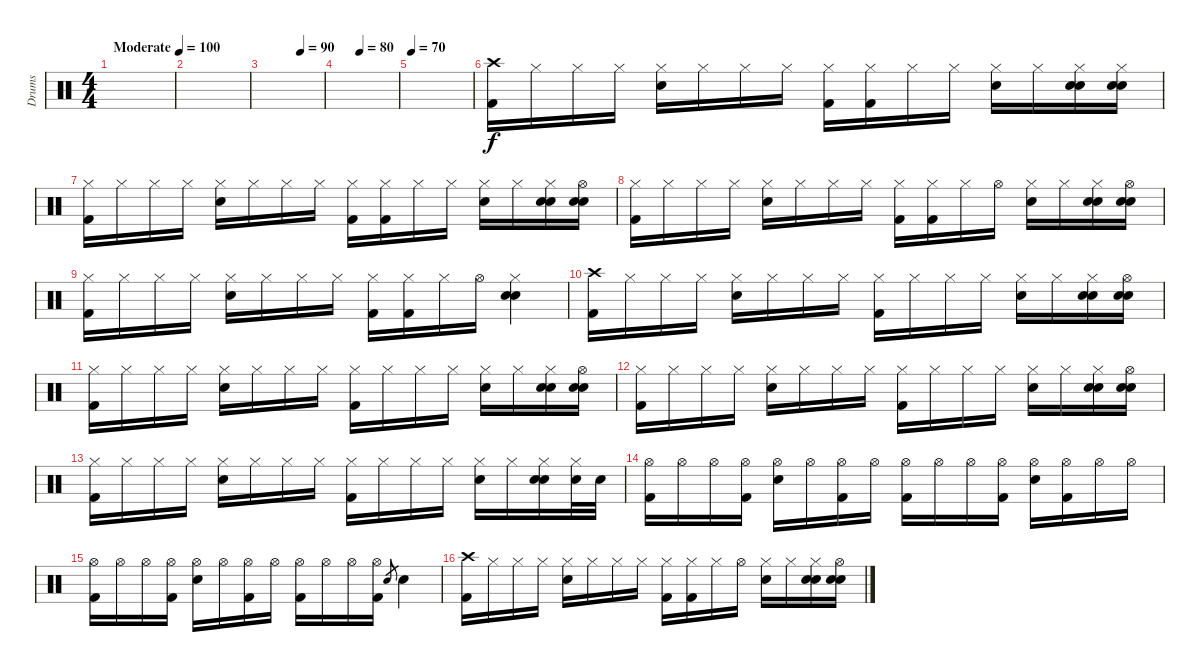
\track ("Drums" "Drums") {instrument percussion}
\staff {score}
\articulation defaults
\ts (4 4)
\tempo (100 "Moderate")
\clef neutral
\ks c
|
|
\tempo (90 0.625)
|
\tempo (80 0.375)
|
\tempo 70
|
("Crash high (hit)" "Kick (hit) 2").16 "Hi-Hat (closed)".16 "Hi-Hat (closed)".16 "Hi-Hat (closed)".16 ("Hi-Hat (closed)" "Electric Snare (hit)").16 "Hi-Hat (closed)".16 "Hi-Hat (closed)".16 "Hi-Hat (closed)".16 ("Hi-Hat (closed)" "Kick (hit) 2").16 ("Hi-Hat (closed)" "Kick (hit) 2").16 "Hi-Hat (closed)".16 "Hi-Hat (closed)".16 ("Hi-Hat (closed)" "Electric Snare (hit)").16 "Hi-Hat (closed)".16 ("Hi-Hat (closed)" "Hand Clap (hit)" "Electric Snare (hit)").16 ("Hi-Hat (closed)" "Hand Clap (hit)" "Electric Snare (hit)").16 |
("Hi-Hat (closed)" "Kick (hit) 2").16 "Hi-Hat (closed)".16 "Hi-Hat (closed)".16 "Hi-Hat (closed)".16 ("Hi-Hat (closed)" "Electric Snare (hit)").16 "Hi-Hat (closed)".16 "Hi-Hat (closed)".16 "Hi-Hat (closed)".16 ("Hi-Hat (closed)" "Kick (hit) 2").16 ("Hi-Hat (closed)" "Kick (hit) 2").16 "Hi-Hat (closed)".16 "Hi-Hat (closed)".16 ("Hi-Hat (closed)" "Electric Snare (hit)").16 "Hi-Hat (closed)".16 ("Hi-Hat (closed)" "Hand Clap (hit)" "Electric Snare (hit)").16 ("Hi-Hat (open)" "Hand Clap (hit)" "Electric Snare (hit)").16 |
("Hi-Hat (closed)" "Kick (hit) 2").16 "Hi-Hat (closed)".16 "Hi-Hat (closed)".16 "Hi-Hat (closed)".16 ("Hi-Hat (closed)" "Electric Snare (hit)").16 "Hi-Hat (closed)".16 "Hi-Hat (closed)".16 "Hi-Hat (closed)".16 ("Hi-Hat (closed)" "Kick (hit) 2").16 ("Hi-Hat (closed)" "Kick (hit) 2").16 "Hi-Hat (closed)".16 "Hi-Hat (open)".16 ("Hi-Hat (closed)" "Electric Snare (hit)").16 "Hi-Hat (closed)".16 ("Hi-Hat (closed)" "Hand Clap (hit)" "Electric Snare (hit)").16 ("Hi-Hat (open)" "Hand Clap (hit)" "Electric Snare (hit)").16 |
("Hi-Hat (closed)" "Kick (hit) 2").16 "Hi-Hat (closed)".16 "Hi-Hat (closed)".16 "Hi-Hat (closed)".16 ("Hi-Hat (closed)" "Electric Snare (hit)").16 "Hi-Hat (closed)".16 "Hi-Hat (closed)".16 "Hi-Hat (closed)".16 ("Hi-Hat (closed)" "Kick (hit) 2").16 ("Hi-Hat (closed)" "Kick (hit) 2").16 "Hi-Hat (closed)".16 "Hi-Hat (open)".16 ("Hi-Hat (closed)" "Hand Clap (hit)" "Electric Snare (hit)").4 |
("Crash high (hit)" "Kick (hit) 2").16 "Hi-Hat (closed)".16 "Hi-Hat (closed)".16 "Hi-Hat (closed)".16 ("Hi-Hat (closed)" "Electric Snare (hit)").16 "Hi-Hat (closed)".16 "Hi-Hat (closed)".16 "Hi-Hat (closed)".16 ("Hi-Hat (closed)" "Kick (hit) 2").16 "Hi-Hat (closed)".16 "Hi-Hat (closed)".16 "Hi-Hat (closed)".16 ("Hi-Hat (closed)" "Electric Snare (hit)").16 "Hi-Hat (closed)".16 ("Hi-Hat (closed)" "Hand Clap (hit)" "Electric Snare (hit)").16 ("Hi-Hat (open)" "Hand Clap (hit)" "Electric Snare (hit)").16 |
("Hi-Hat (closed)" "Kick (hit) 2").16 "Hi-Hat (closed)".16 "Hi-Hat (closed)".16 "Hi-Hat (closed)".16 ("Hi-Hat (closed)" "Electric Snare (hit)").16 "Hi-Hat (closed)".16 "Hi-Hat (closed)".16 "Hi-Hat (closed)".16 ("Hi-Hat (closed)" "Kick (hit) 2").16 "Hi-Hat (closed)".16 "Hi-Hat (closed)".16 "Hi-Hat (closed)".16 ("Hi-Hat (closed)" "Electric Snare (hit)").16 "Hi-Hat (closed)".16 ("Hi-Hat (closed)" "Hand Clap (hit)" "Electric Snare (hit)").16 ("Hi-Hat (open)" "Hand Clap (hit)" "Electric Snare (hit)").16 |
("Hi-Hat (closed)" "Kick (hit) 2").16 "Hi-Hat (closed)".16 "Hi-Hat (closed)".16 "Hi-Hat (closed)".16 ("Hi-Hat (closed)" "Electric Snare (hit)").16 "Hi-Hat (closed)".16 "Hi-Hat (closed)".16 "Hi-Hat (closed)".16 ("Hi-Hat (closed)" "Kick (hit) 2").16 "Hi-Hat (closed)".16 "Hi-Hat (closed)".16 "Hi-Hat (closed)".16 ("Hi-Hat (closed)" "Electric Snare (hit)").16 "Hi-Hat (closed)".16 ("Hi-Hat (closed)" "Hand Clap (hit)" "Electric Snare (hit)").16 ("Hi-Hat (open)" "Hand Clap (hit)" "Electric Snare (hit)").16 |
("Hi-Hat (closed)" "Kick (hit) 2").16 "Hi-Hat (closed)".16 "Hi-Hat (closed)".16 "Hi-Hat (closed)".16 ("Hi-Hat (closed)" "Electric Snare (hit)").16 "Hi-Hat (closed)".16 "Hi-Hat (closed)".16 "Hi-Hat (closed)".16 ("Hi-Hat (closed)" "Kick (hit) 2").16 "Hi-Hat (closed)".16 "Hi-Hat (closed)".16 "Hi-Hat (closed)".16 ("Hi-Hat (closed)" "Electric Snare (hit)").16 "Hi-Hat (closed)".16 ("Hi-Hat (closed)" "Hand Clap (hit)" "Electric Snare (hit)").16 ("Hi-Hat (closed)" "Electric Snare (hit)").32 "Electric Snare (hit)".32 |
("Hi-Hat (open)" "Kick (hit) 2").16 "Hi-Hat (open)".16 "Hi-Hat (open)".16 ("Hi-Hat (open)" "Kick (hit) 2").16 ("Hi-Hat (open)" "Electric Snare (hit)").16 "Hi-Hat (open)".16 ("Hi-Hat (open)" "Kick (hit) 2").16 "Hi-Hat (open)".16 ("Hi-Hat (open)" "Kick (hit) 2").16 "Hi-Hat (open)".16 "Hi-Hat (open)".16 ("Hi-Hat (open)" "Kick (hit) 2").16 ("Hi-Hat (open)" "Electric Snare (hit)").16 ("Hi-Hat (open)" "Kick (hit) 2").16 "Hi-Hat (open)".16 "Hi-Hat (open)".16 |
("Hi-Hat (open)" "Kick (hit) 2").16 "Hi-Hat (open)".16 "Hi-Hat (open)".16 ("Hi-Hat (open)" "Kick (hit) 2").16 ("Hi-Hat (open)" "Electric Snare (hit)").16 "Hi-Hat (open)".16 ("Hi-Hat (open)" "Kick (hit) 2").16 "Hi-Hat (open)".16 ("Hi-Hat (open)" "Kick (hit) 2").16 "Hi-Hat (open)".16 "Hi-Hat (open)".16 ("Hi-Hat (open)" "Kick (hit) 2").16 "Electric Snare (hit)".8{gr} "Electric Snare (hit)".4 |
("Crash high (hit)" "Kick (hit) 2").16 "Hi-Hat (closed)".16 "Hi-Hat (closed)".16 "Hi-Hat (closed)".16 ("Hi-Hat (closed)" "Electric Snare (hit)").16 "Hi-Hat (closed)".16 "Hi-Hat (closed)".16 "Hi-Hat (closed)".16 ("Hi-Hat (closed)" "Kick (hit) 2").16 ("Hi-Hat (closed)" "Kick (hit) 2").16 "Hi-Hat (closed)".16 "Hi-Hat (open)".16 ("Hi-Hat (closed)" "Electric Snare (hit)").16 "Hi-Hat (closed)".16 ("Hi-Hat (closed)" "Hand Clap (hit)" "Electric Snare (hit)").16 ("Hi-Hat (open)" "Hand Clap (hit)" "Electric Snare (hit)").16
